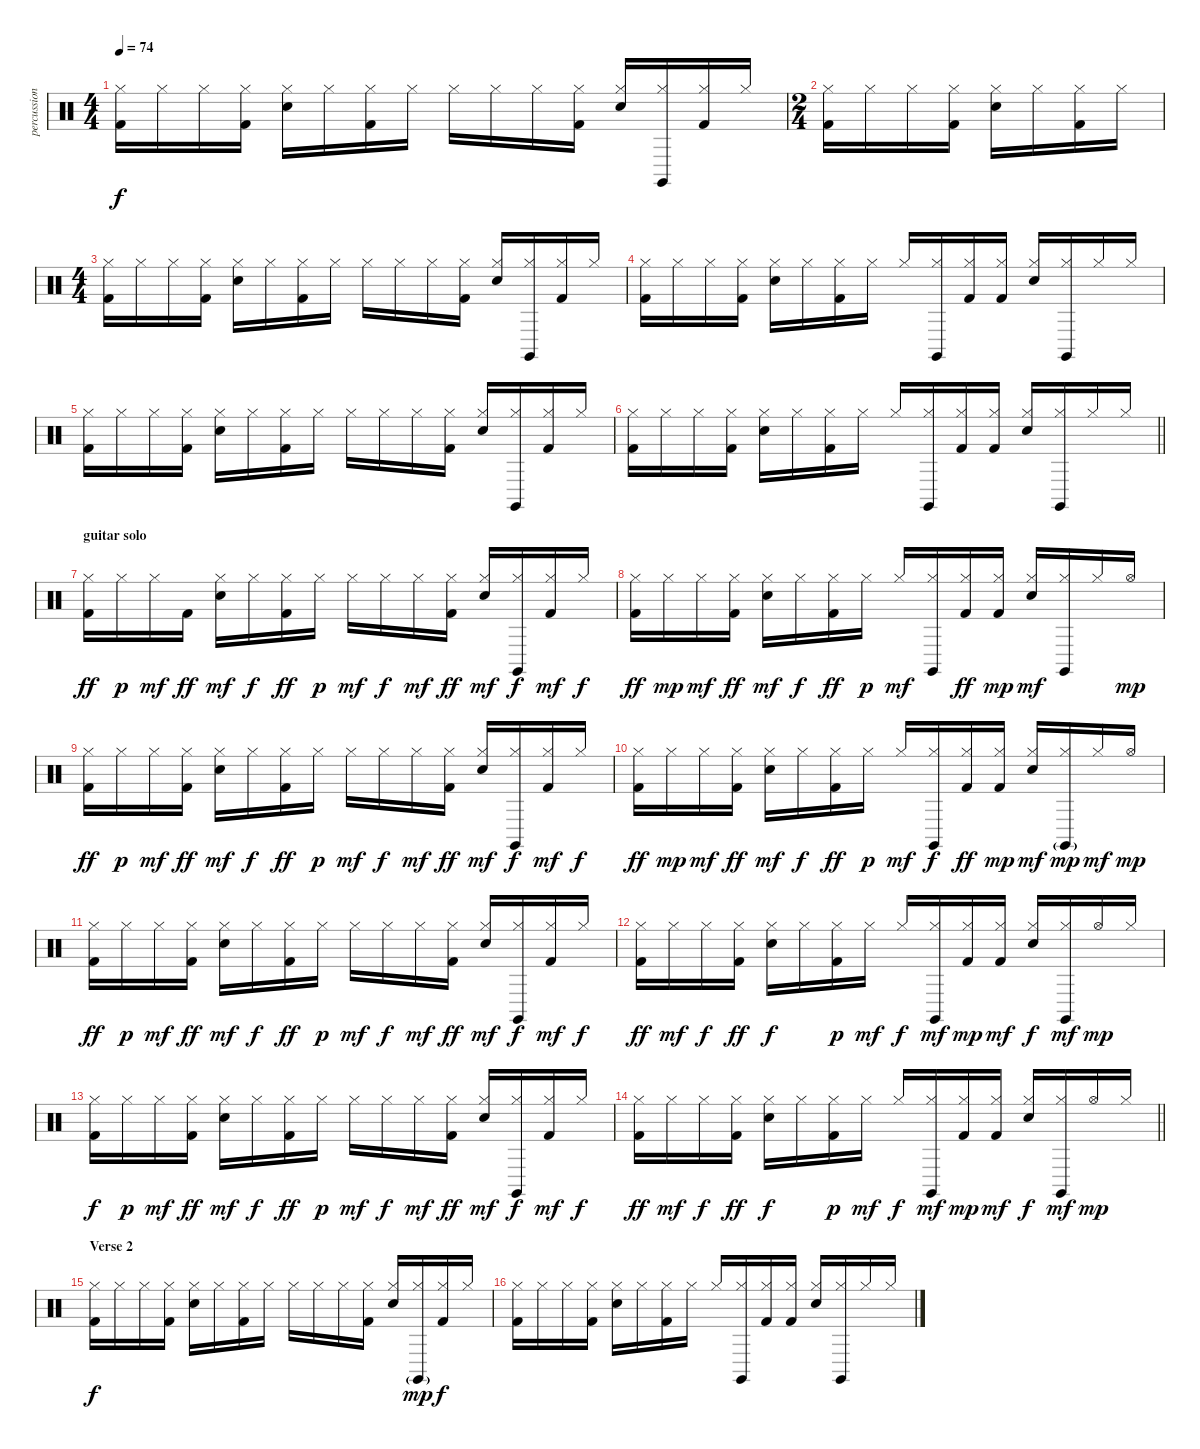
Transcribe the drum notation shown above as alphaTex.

\track ("percussion" "percussion") {instrument percussion}
\staff {score}
\articulation defaults
\ts (4 4)
\tempo 74
\clef neutral
\ks c
("Hi-Hat (closed)" "Kick (hit) 2").16{dy f} "Hi-Hat (closed)".16 "Hi-Hat (closed)".16 ("Hi-Hat (closed)" "Kick (hit) 2").16 ("Snare (hit) 2" "Hi-Hat (closed)").16 "Hi-Hat (closed)".16 ("Hi-Hat (closed)" "Kick (hit) 2").16 "Hi-Hat (closed)".16 "Hi-Hat (closed)".16 "Hi-Hat (closed)".16 "Hi-Hat (closed)".16 ("Hi-Hat (closed)" "Kick (hit) 2").16 ("Snare (hit) 2" "Hi-Hat (closed)").16 ("Claves (hit)" "Hi-Hat (closed)").16 ("Hi-Hat (closed)" "Kick (hit) 2").16 "Hi-Hat (closed)".16 |
\ts (2 4)
("Hi-Hat (closed)" "Kick (hit) 2").16 "Hi-Hat (closed)".16 "Hi-Hat (closed)".16 ("Hi-Hat (closed)" "Kick (hit) 2").16 ("Snare (hit) 2" "Hi-Hat (closed)").16 "Hi-Hat (closed)".16 ("Hi-Hat (closed)" "Kick (hit) 2").16 "Hi-Hat (closed)".16 |
\ts (4 4)
("Hi-Hat (closed)" "Kick (hit) 2").16 "Hi-Hat (closed)".16 "Hi-Hat (closed)".16 ("Hi-Hat (closed)" "Kick (hit) 2").16 ("Snare (hit) 2" "Hi-Hat (closed)").16 "Hi-Hat (closed)".16 ("Hi-Hat (closed)" "Kick (hit) 2").16 "Hi-Hat (closed)".16 "Hi-Hat (closed)".16 "Hi-Hat (closed)".16 "Hi-Hat (closed)".16 ("Hi-Hat (closed)" "Kick (hit) 2").16 ("Snare (hit) 2" "Hi-Hat (closed)").16 ("Claves (hit)" "Hi-Hat (closed)").16 ("Hi-Hat (closed)" "Kick (hit) 2").16 "Hi-Hat (closed)".16 |
("Hi-Hat (closed)" "Kick (hit) 2").16 "Hi-Hat (closed)".16 "Hi-Hat (closed)".16 ("Hi-Hat (closed)" "Kick (hit) 2").16 ("Snare (hit) 2" "Hi-Hat (closed)").16 "Hi-Hat (closed)".16 ("Hi-Hat (closed)" "Kick (hit) 2").16 "Hi-Hat (closed)".16 "Hi-Hat (closed)".16 ("Claves (hit)" "Hi-Hat (closed)").16 ("Hi-Hat (closed)" "Kick (hit) 2").16 ("Hi-Hat (closed)" "Kick (hit) 2").16 ("Snare (hit) 2" "Hi-Hat (closed)").16 ("Claves (hit)" "Hi-Hat (closed)").16 "Hi-Hat (closed)".16 "Hi-Hat (closed)".16 |
("Hi-Hat (closed)" "Kick (hit) 2").16 "Hi-Hat (closed)".16 "Hi-Hat (closed)".16 ("Hi-Hat (closed)" "Kick (hit) 2").16 ("Snare (hit) 2" "Hi-Hat (closed)").16 "Hi-Hat (closed)".16 ("Hi-Hat (closed)" "Kick (hit) 2").16 "Hi-Hat (closed)".16 "Hi-Hat (closed)".16 "Hi-Hat (closed)".16 "Hi-Hat (closed)".16 ("Hi-Hat (closed)" "Kick (hit) 2").16 ("Snare (hit) 2" "Hi-Hat (closed)").16 ("Claves (hit)" "Hi-Hat (closed)").16 ("Hi-Hat (closed)" "Kick (hit) 2").16 "Hi-Hat (closed)".16 |
\barLineRight lightlight
("Hi-Hat (closed)" "Kick (hit) 2").16 "Hi-Hat (closed)".16 "Hi-Hat (closed)".16 ("Hi-Hat (closed)" "Kick (hit) 2").16 ("Snare (hit) 2" "Hi-Hat (closed)").16 "Hi-Hat (closed)".16 ("Hi-Hat (closed)" "Kick (hit) 2").16 "Hi-Hat (closed)".16 "Hi-Hat (closed)".16 ("Claves (hit)" "Hi-Hat (closed)").16 ("Hi-Hat (closed)" "Kick (hit) 2").16 ("Hi-Hat (closed)" "Kick (hit) 2").16 ("Snare (hit) 2" "Hi-Hat (closed)").16 ("Claves (hit)" "Hi-Hat (closed)").16 "Hi-Hat (closed)".16 "Hi-Hat (closed)".16 |
\section ("" "guitar solo")
("Hi-Hat (closed)" "Kick (hit) 2").16{dy ff} "Hi-Hat (closed)".16{dy p} "Hi-Hat (closed)".16{dy mf} "Kick (hit) 2".16{dy ff} ("Snare (hit) 2" "Hi-Hat (closed)").16{dy mf} "Hi-Hat (closed)".16{dy f} ("Hi-Hat (closed)" "Kick (hit) 2").16{dy ff} "Hi-Hat (closed)".16{dy p} "Hi-Hat (closed)".16{dy mf} "Hi-Hat (closed)".16{dy f} "Hi-Hat (closed)".16{dy mf} ("Hi-Hat (closed)" "Kick (hit) 2").16{dy ff} ("Snare (hit) 2" "Hi-Hat (closed)").16{dy mf} ("Claves (hit)" "Hi-Hat (closed)").16{dy f} ("Hi-Hat (closed)" "Kick (hit) 2").16{dy mf} "Hi-Hat (closed)".16{dy f} |
("Hi-Hat (closed)" "Kick (hit) 2").16{dy ff} "Hi-Hat (closed)".16{dy mp} "Hi-Hat (closed)".16{dy mf} ("Hi-Hat (closed)" "Kick (hit) 2").16{dy ff} ("Electric Snare (hit)" "Hi-Hat (closed)").16{dy mf} "Hi-Hat (closed)".16{dy f} ("Hi-Hat (closed)" "Kick (hit) 2").16{dy ff} "Hi-Hat (closed)".16{dy p} "Hi-Hat (closed)".16{dy mf} ("Claves (hit)" "Hi-Hat (closed)").16 ("Hi-Hat (closed)" "Kick (hit) 2").16{dy ff} ("Hi-Hat (closed)" "Kick (hit) 2").16{dy mp} ("Electric Snare (hit)" "Hi-Hat (closed)").16{dy mf} ("Claves (hit)" "Hi-Hat (closed)").16 "Hi-Hat (closed)".16 "Hi-Hat (open)".16{dy mp} |
("Hi-Hat (closed)" "Kick (hit) 2").16{dy ff} "Hi-Hat (closed)".16{dy p} "Hi-Hat (closed)".16{dy mf} ("Hi-Hat (closed)" "Kick (hit) 2").16{dy ff} ("Snare (hit) 2" "Hi-Hat (closed)").16{dy mf} "Hi-Hat (closed)".16{dy f} ("Hi-Hat (closed)" "Kick (hit) 2").16{dy ff} "Hi-Hat (closed)".16{dy p} "Hi-Hat (closed)".16{dy mf} "Hi-Hat (closed)".16{dy f} "Hi-Hat (closed)".16{dy mf} ("Hi-Hat (closed)" "Kick (hit) 2").16{dy ff} ("Snare (hit) 2" "Hi-Hat (closed)").16{dy mf} ("Claves (hit)" "Hi-Hat (closed)").16{dy f} ("Hi-Hat (closed)" "Kick (hit) 2").16{dy mf} "Hi-Hat (closed)".16{dy f} |
("Hi-Hat (closed)" "Kick (hit) 2").16{dy ff} "Hi-Hat (closed)".16{dy mp} "Hi-Hat (closed)".16{dy mf} ("Hi-Hat (closed)" "Kick (hit) 2").16{dy ff} ("Snare (hit) 2" "Hi-Hat (closed)").16{dy mf} "Hi-Hat (closed)".16{dy f} ("Hi-Hat (closed)" "Kick (hit) 2").16{dy ff} "Hi-Hat (closed)".16{dy p} "Hi-Hat (closed)".16{dy mf} ("Claves (hit)" "Hi-Hat (closed)").16{dy f} ("Hi-Hat (closed)" "Kick (hit) 2").16{dy ff} ("Hi-Hat (closed)" "Kick (hit) 2").16{dy mp} ("Snare (hit) 2" "Hi-Hat (closed)").16{dy mf} ("Claves (hit)"{g} "Hi-Hat (closed)").16{dy mp} "Hi-Hat (closed)".16{dy mf} "Hi-Hat (open)".16{dy mp} |
("Hi-Hat (closed)" "Kick (hit) 2").16{dy ff} "Hi-Hat (closed)".16{dy p} "Hi-Hat (closed)".16{dy mf} ("Hi-Hat (closed)" "Kick (hit) 2").16{dy ff} ("Snare (hit) 2" "Hi-Hat (closed)").16{dy mf} "Hi-Hat (closed)".16{dy f} ("Hi-Hat (closed)" "Kick (hit) 2").16{dy ff} "Hi-Hat (closed)".16{dy p} "Hi-Hat (closed)".16{dy mf} "Hi-Hat (closed)".16{dy f} "Hi-Hat (closed)".16{dy mf} ("Hi-Hat (closed)" "Kick (hit) 2").16{dy ff} ("Snare (hit) 2" "Hi-Hat (closed)").16{dy mf} ("Claves (hit)" "Hi-Hat (closed)").16{dy f} ("Hi-Hat (closed)" "Kick (hit) 2").16{dy mf} "Hi-Hat (closed)".16{dy f} |
("Hi-Hat (closed)" "Kick (hit) 2").16{dy ff} "Hi-Hat (closed)".16{dy mf} "Hi-Hat (closed)".16{dy f} ("Hi-Hat (closed)" "Kick (hit) 2").16{dy ff} ("Snare (hit) 2" "Hi-Hat (closed)").16{dy f} "Hi-Hat (closed)".16 ("Hi-Hat (closed)" "Kick (hit) 2").16{dy p} "Hi-Hat (closed)".16{dy mf} "Hi-Hat (closed)".16{dy f} ("Claves (hit)" "Hi-Hat (closed)").16{dy mf} ("Hi-Hat (closed)" "Kick (hit) 2").16{dy mp} ("Hi-Hat (closed)" "Kick (hit) 2").16{dy mf} ("Snare (hit) 2" "Hi-Hat (closed)").16{dy f} ("Claves (hit)" "Hi-Hat (closed)").16{dy mf} "Hi-Hat (open)".16{dy mp} "Hi-Hat (closed)".16 |
("Hi-Hat (closed)" "Kick (hit) 2").16{dy f} "Hi-Hat (closed)".16{dy p} "Hi-Hat (closed)".16{dy mf} ("Hi-Hat (closed)" "Kick (hit) 2").16{dy ff} ("Snare (hit) 2" "Hi-Hat (closed)").16{dy mf} "Hi-Hat (closed)".16{dy f} ("Hi-Hat (closed)" "Kick (hit) 2").16{dy ff} "Hi-Hat (closed)".16{dy p} "Hi-Hat (closed)".16{dy mf} "Hi-Hat (closed)".16{dy f} "Hi-Hat (closed)".16{dy mf} ("Hi-Hat (closed)" "Kick (hit) 2").16{dy ff} ("Snare (hit) 2" "Hi-Hat (closed)").16{dy mf} ("Claves (hit)" "Hi-Hat (closed)").16{dy f} ("Hi-Hat (closed)" "Kick (hit) 2").16{dy mf} "Hi-Hat (closed)".16{dy f} |
\barLineRight lightlight
("Hi-Hat (closed)" "Kick (hit) 2").16{dy ff} "Hi-Hat (closed)".16{dy mf} "Hi-Hat (closed)".16{dy f} ("Hi-Hat (closed)" "Kick (hit) 2").16{dy ff} ("Snare (hit) 2" "Hi-Hat (closed)").16{dy f} "Hi-Hat (closed)".16 ("Hi-Hat (closed)" "Kick (hit) 2").16{dy p} "Hi-Hat (closed)".16{dy mf} "Hi-Hat (closed)".16{dy f} ("Claves (hit)" "Hi-Hat (closed)").16{dy mf} ("Hi-Hat (closed)" "Kick (hit) 2").16{dy mp} ("Hi-Hat (closed)" "Kick (hit) 2").16{dy mf} ("Snare (hit) 2" "Hi-Hat (closed)").16{dy f} ("Claves (hit)" "Hi-Hat (closed)").16{dy mf} "Hi-Hat (open)".16{dy mp} "Hi-Hat (closed)".16 |
\section ("" "Verse 2")
("Hi-Hat (closed)" "Kick (hit) 2").16{dy f} "Hi-Hat (closed)".16 "Hi-Hat (closed)".16 ("Hi-Hat (closed)" "Kick (hit) 2").16 ("Snare (hit) 2" "Hi-Hat (closed)").16 "Hi-Hat (closed)".16 ("Hi-Hat (closed)" "Kick (hit) 2").16 "Hi-Hat (closed)".16 "Hi-Hat (closed)".16 "Hi-Hat (closed)".16 "Hi-Hat (closed)".16 ("Hi-Hat (closed)" "Kick (hit) 2").16 ("Snare (hit) 2" "Hi-Hat (closed)").16 ("Claves (hit)"{g} "Hi-Hat (closed)").16{dy mp} ("Hi-Hat (closed)" "Kick (hit) 2").16{dy f} "Hi-Hat (closed)".16 |
("Hi-Hat (closed)" "Kick (hit) 2").16 "Hi-Hat (closed)".16 "Hi-Hat (closed)".16 ("Hi-Hat (closed)" "Kick (hit) 2").16 ("Snare (hit) 2" "Hi-Hat (closed)").16 "Hi-Hat (closed)".16 ("Hi-Hat (closed)" "Kick (hit) 2").16 "Hi-Hat (closed)".16 "Hi-Hat (closed)".16 ("Claves (hit)" "Hi-Hat (closed)").16 ("Hi-Hat (closed)" "Kick (hit) 2").16 ("Hi-Hat (closed)" "Kick (hit) 2").16 ("Snare (hit) 2" "Hi-Hat (closed)").16 ("Claves (hit)" "Hi-Hat (closed)").16 "Hi-Hat (closed)".16 "Hi-Hat (closed)".16
